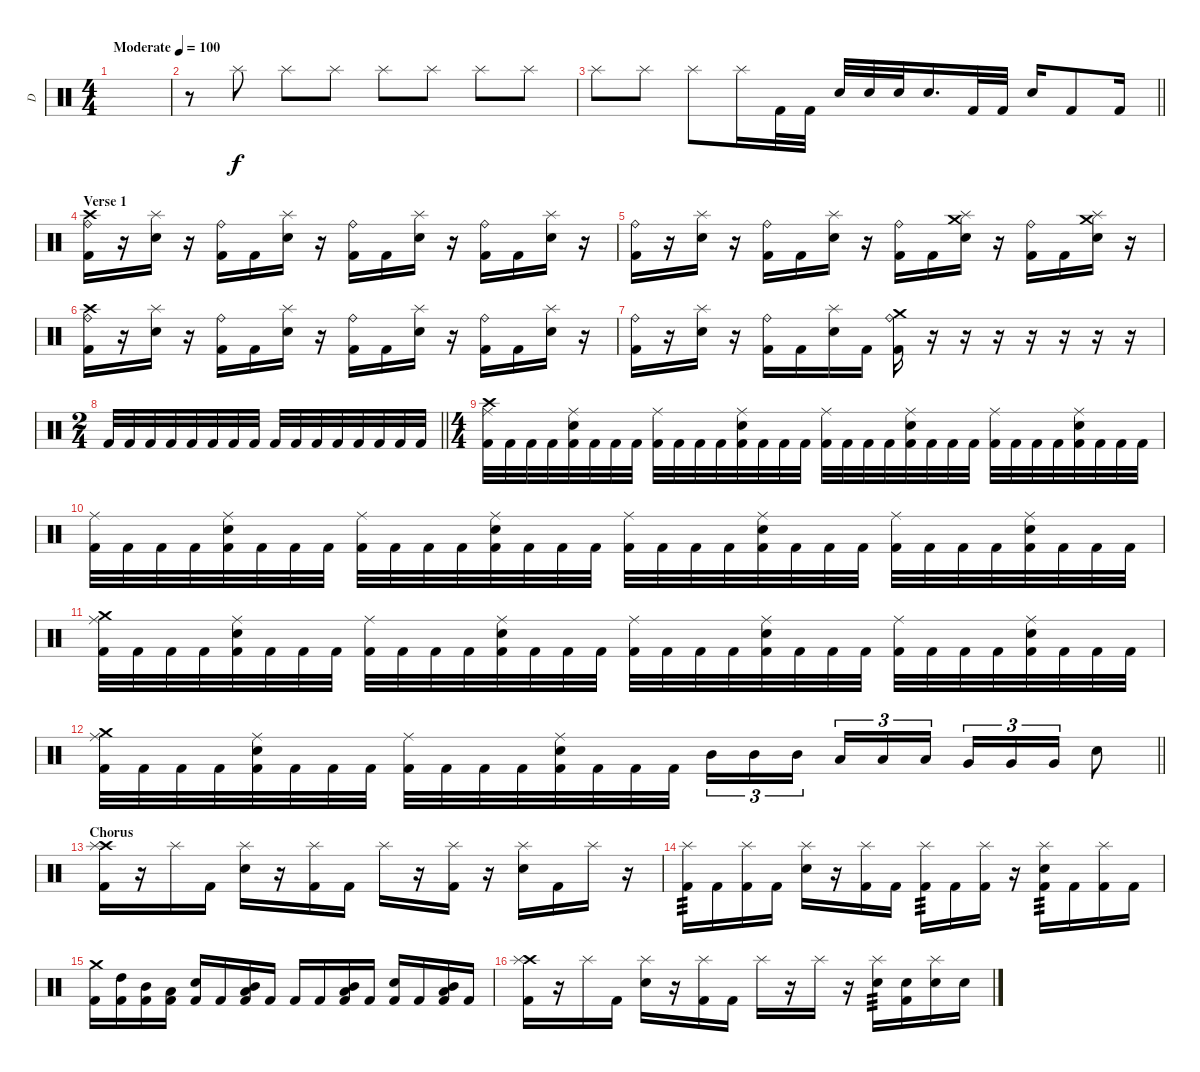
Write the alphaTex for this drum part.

\track ("D" "D") {instrument percussion}
\staff {score}
\articulation defaults
\ts (4 4)
\tempo (100 "Moderate")
\clef neutral
\ks c
|
r.8 "Splash (hit)".8 "Splash (hit)".8 "Splash (hit)".8 "Splash (hit)".8 "Splash (hit)".8 "Splash (hit)".8 "Splash (hit)".8 |
\barLineRight lightlight "Splash (hit)".8 "Splash (hit)".8 "Splash (hit)".8 "Splash (hit)".16 "Kick (hit) 2".32 "Kick (hit) 2".32 "Electric Snare (hit)".32 "Electric Snare (hit)".32 "Electric Snare (hit)".32 "Electric Snare (hit)".16{d} "Kick (hit) 2".32 "Kick (hit) 2".32 "Electric Snare (hit)".16 "Kick (hit) 2".8 "Kick (hit) 2".16
|
\section ("" "Verse 1")
("Crash high (hit)" "Kick (hit) 2" "Ride (bell)").16 r.16 ("Electric Snare (hit)" "Splash (hit)").16 r.16 ("Kick (hit) 2" "Ride (bell)").16 "Kick (hit) 2".16 ("Electric Snare (hit)" "Splash (hit)").16 r.16 ("Kick (hit) 2" "Ride (bell)").16 "Kick (hit) 2".16 ("Electric Snare (hit)" "Splash (hit)").16 r.16 ("Kick (hit) 2" "Ride (bell)").16 "Kick (hit) 2".16 ("Electric Snare (hit)" "Splash (hit)").16 r.16 |
("Kick (hit) 2" "Ride (bell)").16 r.16 ("Electric Snare (hit)" "Splash (hit)").16 r.16 ("Kick (hit) 2" "Ride (bell)").16 "Kick (hit) 2".16 ("Electric Snare (hit)" "Splash (hit)").16 r.16 ("Kick (hit) 2" "Ride (bell)").16 "Kick (hit) 2".16 ("Crash medium (hit)" "Electric Snare (hit)" "Splash (hit)").16 r.16 ("Kick (hit) 2" "Ride (bell)").16 "Kick (hit) 2".16 ("Crash medium (hit)" "Electric Snare (hit)" "Splash (hit)").16 r.16 |
("Crash high (hit)" "Kick (hit) 2" "Ride (bell)").16 r.16 ("Electric Snare (hit)" "Splash (hit)").16 r.16 ("Kick (hit) 2" "Ride (bell)").16 "Kick (hit) 2".16 ("Electric Snare (hit)" "Splash (hit)").16 r.16 ("Kick (hit) 2" "Ride (bell)").16 "Kick (hit) 2".16 ("Electric Snare (hit)" "Splash (hit)").16 r.16 ("Kick (hit) 2" "Ride (bell)").16 "Kick (hit) 2".16 ("Electric Snare (hit)" "Splash (hit)").16 r.16 |
("Kick (hit) 2" "Ride (bell)").16 r.16 ("Electric Snare (hit)" "Splash (hit)").16 r.16 ("Kick (hit) 2" "Ride (bell)").16 "Kick (hit) 2".16 ("Electric Snare (hit)" "Splash (hit)").16 "Kick (hit) 2".16 ("Crash medium (hit)" "Kick (hit) 2" "Ride (bell)").16 r.16 r.16 r.16 r.16 r.16 r.16 r.16 |
\ts (2 4)
\barLineRight lightlight "Kick (hit) 2".32 "Kick (hit) 2".32 "Kick (hit) 2".32 "Kick (hit) 2".32 "Kick (hit) 2".32 "Kick (hit) 2".32 "Kick (hit) 2".32 "Kick (hit) 2".32 "Kick (hit) 2".32 "Kick (hit) 2".32 "Kick (hit) 2".32 "Kick (hit) 2".32 "Kick (hit) 2".32 "Kick (hit) 2".32 "Kick (hit) 2".32 "Kick (hit) 2".32
|
\ts (4 4)
("Crash high (hit)" "Kick (hit) 2" "Ride (middle)").32 "Kick (hit) 2".32 "Kick (hit) 2".32 "Kick (hit) 2".32 ("Electric Snare (hit)" "Kick (hit) 2" "Ride (middle)").32 "Kick (hit) 2".32 "Kick (hit) 2".32 "Kick (hit) 2".32 ("Kick (hit) 2" "Ride (middle)").32 "Kick (hit) 2".32 "Kick (hit) 2".32 "Kick (hit) 2".32 ("Electric Snare (hit)" "Kick (hit) 2" "Ride (middle)").32 "Kick (hit) 2".32 "Kick (hit) 2".32 "Kick (hit) 2".32 ("Kick (hit) 2" "Ride (middle)").32 "Kick (hit) 2".32 "Kick (hit) 2".32 "Kick (hit) 2".32 ("Electric Snare (hit)" "Kick (hit) 2" "Ride (middle)").32 "Kick (hit) 2".32 "Kick (hit) 2".32 "Kick (hit) 2".32 ("Kick (hit) 2" "Ride (middle)").32 "Kick (hit) 2".32 "Kick (hit) 2".32 "Kick (hit) 2".32 ("Electric Snare (hit)" "Kick (hit) 2" "Ride (middle)").32 "Kick (hit) 2".32 "Kick (hit) 2".32 "Kick (hit) 2".32 |
("Kick (hit) 2" "Ride (middle)").32 "Kick (hit) 2".32 "Kick (hit) 2".32 "Kick (hit) 2".32 ("Electric Snare (hit)" "Kick (hit) 2" "Ride (middle)").32 "Kick (hit) 2".32 "Kick (hit) 2".32 "Kick (hit) 2".32 ("Kick (hit) 2" "Ride (middle)").32 "Kick (hit) 2".32 "Kick (hit) 2".32 "Kick (hit) 2".32 ("Electric Snare (hit)" "Kick (hit) 2" "Ride (middle)").32 "Kick (hit) 2".32 "Kick (hit) 2".32 "Kick (hit) 2".32 ("Kick (hit) 2" "Ride (middle)").32 "Kick (hit) 2".32 "Kick (hit) 2".32 "Kick (hit) 2".32 ("Electric Snare (hit)" "Kick (hit) 2" "Ride (middle)").32 "Kick (hit) 2".32 "Kick (hit) 2".32 "Kick (hit) 2".32 ("Kick (hit) 2" "Ride (middle)").32 "Kick (hit) 2".32 "Kick (hit) 2".32 "Kick (hit) 2".32 ("Electric Snare (hit)" "Kick (hit) 2" "Ride (middle)").32 "Kick (hit) 2".32 "Kick (hit) 2".32 "Kick (hit) 2".32 |
("Crash medium (hit)" "Kick (hit) 2" "Ride (middle)").32 "Kick (hit) 2".32 "Kick (hit) 2".32 "Kick (hit) 2".32 ("Electric Snare (hit)" "Kick (hit) 2" "Ride (middle)").32 "Kick (hit) 2".32 "Kick (hit) 2".32 "Kick (hit) 2".32 ("Kick (hit) 2" "Ride (middle)").32 "Kick (hit) 2".32 "Kick (hit) 2".32 "Kick (hit) 2".32 ("Electric Snare (hit)" "Kick (hit) 2" "Ride (middle)").32 "Kick (hit) 2".32 "Kick (hit) 2".32 "Kick (hit) 2".32 ("Kick (hit) 2" "Ride (middle)").32 "Kick (hit) 2".32 "Kick (hit) 2".32 "Kick (hit) 2".32 ("Electric Snare (hit)" "Kick (hit) 2" "Ride (middle)").32 "Kick (hit) 2".32 "Kick (hit) 2".32 "Kick (hit) 2".32 ("Kick (hit) 2" "Ride (middle)").32 "Kick (hit) 2".32 "Kick (hit) 2".32 "Kick (hit) 2".32 ("Electric Snare (hit)" "Kick (hit) 2" "Ride (middle)").32 "Kick (hit) 2".32 "Kick (hit) 2".32 "Kick (hit) 2".32 |
\barLineRight lightlight
("Crash medium (hit)" "Kick (hit) 2" "Ride (middle)").32 "Kick (hit) 2".32 "Kick (hit) 2".32 "Kick (hit) 2".32 ("Electric Snare (hit)" "Kick (hit) 2" "Ride (middle)").32 "Kick (hit) 2".32 "Kick (hit) 2".32 "Kick (hit) 2".32 ("Kick (hit) 2" "Ride (middle)").32 "Kick (hit) 2".32 "Kick (hit) 2".32 "Kick (hit) 2".32 ("Electric Snare (hit)" "Kick (hit) 2" "Ride (middle)").32 "Kick (hit) 2".32 "Kick (hit) 2".32 "Kick (hit) 2".32 "Mid Tom (hit)".16{tu (3 2)} "Mid Tom (hit)".16{tu (3 2)} "Mid Tom (hit)".16{tu (3 2) beam splitsecondary} "Low Tom (hit)".16{tu (3 2)} "Low Tom (hit)".16{tu (3 2)} "Low Tom (hit)".16{tu (3 2)} "Very Low Tom (hit)".16{tu (3 2)} "Very Low Tom (hit)".16{tu (3 2)} "Very Low Tom (hit)".16{tu (3 2)} "Electric Snare (hit)".8 |
\section ("" "Chorus")
("Crash high (hit)" "Kick (hit) 2" "Splash (hit)").16 r.16 "Splash (hit)".16 "Kick (hit) 2".16 ("Electric Snare (hit)" "Splash (hit)").16 r.16 ("Kick (hit) 2" "Splash (hit)").16 "Kick (hit) 2".16 "Splash (hit)".16 r.16 ("Kick (hit) 2" "Splash (hit)").16 r.16 ("Electric Snare (hit)" "Splash (hit)").16 "Kick (hit) 2".16 "Splash (hit)".16 r.16 |
("Kick (hit) 2" "Splash (hit)").16{tp 3} "Kick (hit) 2".16 ("Kick (hit) 2" "Splash (hit)").16 "Kick (hit) 2".16 ("Electric Snare (hit)" "Splash (hit)").16 r.16 ("Kick (hit) 2" "Splash (hit)").16 "Kick (hit) 2".16 ("Kick (hit) 2" "Splash (hit)").16{tp 3} "Kick (hit) 2".16 ("Kick (hit) 2" "Splash (hit)").16 r.16 ("Electric Snare (hit)" "Kick (hit) 2" "Splash (hit)").16{tp 3} "Kick (hit) 2".16 ("Kick (hit) 2" "Splash (hit)").16 "Kick (hit) 2".16 |
("Crash medium (hit)" "Kick (hit) 2").16 ("High Tom (hit)" "Kick (hit) 2").16 ("Mid Tom (hit)" "Kick (hit) 2").16 ("Low Tom (hit)" "Kick (hit) 2").16 ("Electric Snare (hit)" "Kick (hit) 2").16 "Kick (hit) 2".16 ("Mid Tom (hit)" "Low Tom (hit)" "Kick (hit) 2").16 "Kick (hit) 2".16 "Kick (hit) 2".16 "Kick (hit) 2".16 ("Mid Tom (hit)" "Low Tom (hit)" "Kick (hit) 2").16 "Kick (hit) 2".16 ("Electric Snare (hit)" "Kick (hit) 2").16 "Kick (hit) 2".16 ("Mid Tom (hit)" "Low Tom (hit)" "Kick (hit) 2").16 "Kick (hit) 2".16 |
("Crash high (hit)" "Kick (hit) 2" "Splash (hit)").16 r.16 "Splash (hit)".16 "Kick (hit) 2".16 ("Electric Snare (hit)" "Splash (hit)").16 r.16 ("Kick (hit) 2" "Splash (hit)").16 "Kick (hit) 2".16 "Splash (hit)".16 r.16 "Splash (hit)".16 r.16 ("Electric Snare (hit)" "Splash (hit)").16{tp 3} ("Electric Snare (hit)" "Kick (hit) 2").16 ("Electric Snare (hit)" "Splash (hit)").16 "Electric Snare (hit)".16
